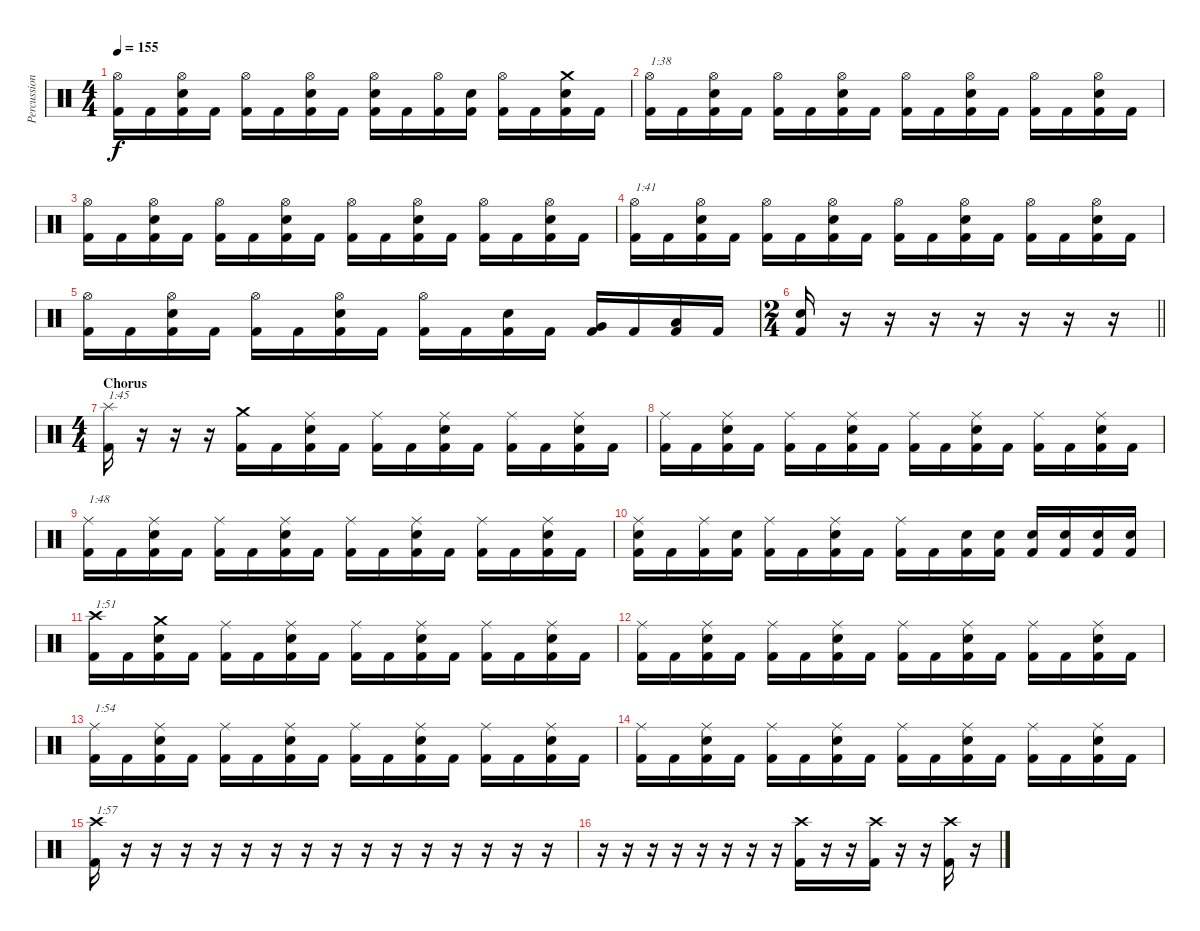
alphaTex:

\track ("Percussion" "Percussion") {instrument percussion}
\staff {score}
\articulation defaults
\ts (4 4)
\tempo 155
\clef neutral
\ks c
("Hi-Hat (open)" "Kick (hit) 2").16{dy f} "Kick (hit) 2".16 ("Hi-Hat (open)" "Electric Snare (hit)" "Kick (hit) 2").16 "Kick (hit) 2".16 ("Hi-Hat (open)" "Kick (hit) 2").16 "Kick (hit) 2".16 ("Hi-Hat (open)" "Electric Snare (hit)" "Kick (hit) 2").16 "Kick (hit) 2".16 ("Hi-Hat (open)" "Electric Snare (hit)" "Kick (hit) 2").16 "Kick (hit) 2".16 ("Hi-Hat (open)" "Kick (hit) 2").16 ("Electric Snare (hit)" "Kick (hit) 2").16 ("Hi-Hat (open)" "Kick (hit) 2").16 "Kick (hit) 2".16 ("Crash medium (hit)" "Electric Snare (hit)" "Kick (hit) 2").16 "Kick (hit) 2".16 |
("Hi-Hat (open)" "Kick (hit) 2").16{txt "1:38"} "Kick (hit) 2".16 ("Hi-Hat (open)" "Electric Snare (hit)" "Kick (hit) 2").16 "Kick (hit) 2".16 ("Hi-Hat (open)" "Kick (hit) 2").16 "Kick (hit) 2".16 ("Hi-Hat (open)" "Electric Snare (hit)" "Kick (hit) 2").16 "Kick (hit) 2".16 ("Hi-Hat (open)" "Kick (hit) 2").16 "Kick (hit) 2".16 ("Hi-Hat (open)" "Electric Snare (hit)" "Kick (hit) 2").16 "Kick (hit) 2".16 ("Hi-Hat (open)" "Kick (hit) 2").16 "Kick (hit) 2".16 ("Hi-Hat (open)" "Electric Snare (hit)" "Kick (hit) 2").16 "Kick (hit) 2".16 |
("Hi-Hat (open)" "Kick (hit) 2").16 "Kick (hit) 2".16 ("Hi-Hat (open)" "Electric Snare (hit)" "Kick (hit) 2").16 "Kick (hit) 2".16 ("Hi-Hat (open)" "Kick (hit) 2").16 "Kick (hit) 2".16 ("Hi-Hat (open)" "Electric Snare (hit)" "Kick (hit) 2").16 "Kick (hit) 2".16 ("Hi-Hat (open)" "Kick (hit) 2").16 "Kick (hit) 2".16 ("Hi-Hat (open)" "Electric Snare (hit)" "Kick (hit) 2").16 "Kick (hit) 2".16 ("Hi-Hat (open)" "Kick (hit) 2").16 "Kick (hit) 2".16 ("Hi-Hat (open)" "Electric Snare (hit)" "Kick (hit) 2").16 "Kick (hit) 2".16 |
("Hi-Hat (open)" "Kick (hit) 2").16{txt "1:41"} "Kick (hit) 2".16 ("Hi-Hat (open)" "Electric Snare (hit)" "Kick (hit) 2").16 "Kick (hit) 2".16 ("Hi-Hat (open)" "Kick (hit) 2").16 "Kick (hit) 2".16 ("Hi-Hat (open)" "Electric Snare (hit)" "Kick (hit) 2").16 "Kick (hit) 2".16 ("Hi-Hat (open)" "Kick (hit) 2").16 "Kick (hit) 2".16 ("Hi-Hat (open)" "Electric Snare (hit)" "Kick (hit) 2").16 "Kick (hit) 2".16 ("Hi-Hat (open)" "Kick (hit) 2").16 "Kick (hit) 2".16 ("Hi-Hat (open)" "Electric Snare (hit)" "Kick (hit) 2").16 "Kick (hit) 2".16 |
("Hi-Hat (open)" "Kick (hit) 2").16 "Kick (hit) 2".16 ("Hi-Hat (open)" "Electric Snare (hit)" "Kick (hit) 2").16 "Kick (hit) 2".16 ("Hi-Hat (open)" "Kick (hit) 2").16 "Kick (hit) 2".16 ("Hi-Hat (open)" "Electric Snare (hit)" "Kick (hit) 2").16 "Kick (hit) 2".16 ("Hi-Hat (open)" "Kick (hit) 2").16 "Kick (hit) 2".16 ("Electric Snare (hit)" "Kick (hit) 2").16 "Kick (hit) 2".16 ("Very Low Tom (hit)" "Kick (hit) 2").16 "Kick (hit) 2".16 ("Low Floor Tom (hit)" "Kick (hit) 2").16 "Kick (hit) 2".16 |
\ts (2 4)
\barLineRight lightlight
("Electric Snare (hit)" "Kick (hit) 2").16 r.16 r.16 r.16 r.16 r.16 r.16 r.16 |
\ts (4 4)
\section ("" "Chorus")
("Splash (hit)" "Kick (hit) 2").16{txt "1:45"} r.16 r.16 r.16 ("Crash medium (hit)" "Kick (hit) 2").16 "Kick (hit) 2".16 ("Ride (middle)" "Electric Snare (hit)" "Kick (hit) 2").16 "Kick (hit) 2".16 ("Ride (middle)" "Kick (hit) 2").16 "Kick (hit) 2".16 ("Ride (middle)" "Electric Snare (hit)" "Kick (hit) 2").16 "Kick (hit) 2".16 ("Ride (middle)" "Kick (hit) 2").16 "Kick (hit) 2".16 ("Ride (middle)" "Electric Snare (hit)" "Kick (hit) 2").16 "Kick (hit) 2".16 |
("Ride (middle)" "Kick (hit) 2").16 "Kick (hit) 2".16 ("Ride (middle)" "Electric Snare (hit)" "Kick (hit) 2").16 "Kick (hit) 2".16 ("Ride (middle)" "Kick (hit) 2").16 "Kick (hit) 2".16 ("Ride (middle)" "Electric Snare (hit)" "Kick (hit) 2").16 "Kick (hit) 2".16 ("Ride (middle)" "Kick (hit) 2").16 "Kick (hit) 2".16 ("Ride (middle)" "Electric Snare (hit)" "Kick (hit) 2").16 "Kick (hit) 2".16 ("Ride (middle)" "Kick (hit) 2").16 "Kick (hit) 2".16 ("Ride (middle)" "Electric Snare (hit)" "Kick (hit) 2").16 "Kick (hit) 2".16 |
("Ride (middle)" "Kick (hit) 2").16{txt "1:48"} "Kick (hit) 2".16 ("Ride (middle)" "Electric Snare (hit)" "Kick (hit) 2").16 "Kick (hit) 2".16 ("Ride (middle)" "Kick (hit) 2").16 "Kick (hit) 2".16 ("Ride (middle)" "Electric Snare (hit)" "Kick (hit) 2").16 "Kick (hit) 2".16 ("Ride (middle)" "Kick (hit) 2").16 "Kick (hit) 2".16 ("Ride (middle)" "Electric Snare (hit)" "Kick (hit) 2").16 "Kick (hit) 2".16 ("Ride (middle)" "Kick (hit) 2").16 "Kick (hit) 2".16 ("Ride (middle)" "Electric Snare (hit)" "Kick (hit) 2").16 "Kick (hit) 2".16 |
("Ride (middle)" "Electric Snare (hit)" "Kick (hit) 2").16 "Kick (hit) 2".16 ("Ride (middle)" "Kick (hit) 2").16 ("Electric Snare (hit)" "Kick (hit) 2").16 ("Ride (middle)" "Kick (hit) 2").16 "Kick (hit) 2".16 ("Ride (middle)" "Electric Snare (hit)" "Kick (hit) 2").16 "Kick (hit) 2".16 ("Ride (middle)" "Kick (hit) 2").16 "Kick (hit) 2".16 ("Electric Snare (hit)" "Kick (hit) 2").16 ("Electric Snare (hit)" "Kick (hit) 2").16 ("Electric Snare (hit)" "Kick (hit) 2").16 ("Electric Snare (hit)" "Kick (hit) 2").16 ("Electric Snare (hit)" "Kick (hit) 2").16 ("Electric Snare (hit)" "Kick (hit) 2").16 |
("Crash high (hit)" "Kick (hit) 2").16{txt "1:51"} "Kick (hit) 2".16 ("Crash medium (hit)" "Electric Snare (hit)" "Kick (hit) 2").16 "Kick (hit) 2".16 ("Ride (middle)" "Kick (hit) 2").16 "Kick (hit) 2".16 ("Ride (middle)" "Electric Snare (hit)" "Kick (hit) 2").16 "Kick (hit) 2".16 ("Ride (middle)" "Kick (hit) 2").16 "Kick (hit) 2".16 ("Ride (middle)" "Electric Snare (hit)" "Kick (hit) 2").16 "Kick (hit) 2".16 ("Ride (middle)" "Kick (hit) 2").16 "Kick (hit) 2".16 ("Ride (middle)" "Electric Snare (hit)" "Kick (hit) 2").16 "Kick (hit) 2".16 |
("Ride (middle)" "Kick (hit) 2").16 "Kick (hit) 2".16 ("Ride (middle)" "Electric Snare (hit)" "Kick (hit) 2").16 "Kick (hit) 2".16 ("Ride (middle)" "Kick (hit) 2").16 "Kick (hit) 2".16 ("Ride (middle)" "Electric Snare (hit)" "Kick (hit) 2").16 "Kick (hit) 2".16 ("Ride (middle)" "Kick (hit) 2").16 "Kick (hit) 2".16 ("Ride (middle)" "Electric Snare (hit)" "Kick (hit) 2").16 "Kick (hit) 2".16 ("Ride (middle)" "Kick (hit) 2").16 "Kick (hit) 2".16 ("Ride (middle)" "Electric Snare (hit)" "Kick (hit) 2").16 "Kick (hit) 2".16 |
("Ride (middle)" "Kick (hit) 2").16{txt "1:54"} "Kick (hit) 2".16 ("Ride (middle)" "Electric Snare (hit)" "Kick (hit) 2").16 "Kick (hit) 2".16 ("Ride (middle)" "Kick (hit) 2").16 "Kick (hit) 2".16 ("Ride (middle)" "Electric Snare (hit)" "Kick (hit) 2").16 "Kick (hit) 2".16 ("Ride (middle)" "Kick (hit) 2").16 "Kick (hit) 2".16 ("Ride (middle)" "Electric Snare (hit)" "Kick (hit) 2").16 "Kick (hit) 2".16 ("Ride (middle)" "Kick (hit) 2").16 "Kick (hit) 2".16 ("Ride (middle)" "Electric Snare (hit)" "Kick (hit) 2").16 "Kick (hit) 2".16 |
("Ride (middle)" "Kick (hit) 2").16 "Kick (hit) 2".16 ("Ride (middle)" "Electric Snare (hit)" "Kick (hit) 2").16 "Kick (hit) 2".16 ("Ride (middle)" "Kick (hit) 2").16 "Kick (hit) 2".16 ("Ride (middle)" "Electric Snare (hit)" "Kick (hit) 2").16 "Kick (hit) 2".16 ("Ride (middle)" "Kick (hit) 2").16 "Kick (hit) 2".16 ("Ride (middle)" "Electric Snare (hit)" "Kick (hit) 2").16 "Kick (hit) 2".16 ("Ride (middle)" "Kick (hit) 2").16 "Kick (hit) 2".16 ("Ride (middle)" "Electric Snare (hit)" "Kick (hit) 2").16 "Kick (hit) 2".16 |
("Crash high (hit)" "Kick (hit) 2").16{txt "1:57"} r.16 r.16{volume 0} r.16 r.16 r.16 r.16 r.16 r.16 r.16 r.16 r.16 r.16 r.16 r.16 r.16 |
r.16 r.16 r.16 r.16 r.16 r.16 r.16 r.16 ("Crash high (hit)" "Kick (hit) 2").16{volume 13} r.16 r.16{volume 0} ("Crash high (hit)" "Kick (hit) 2").16{volume 13} r.16 r.16{volume 0} ("Crash high (hit)" "Kick (hit) 2").16{volume 13} r.16
